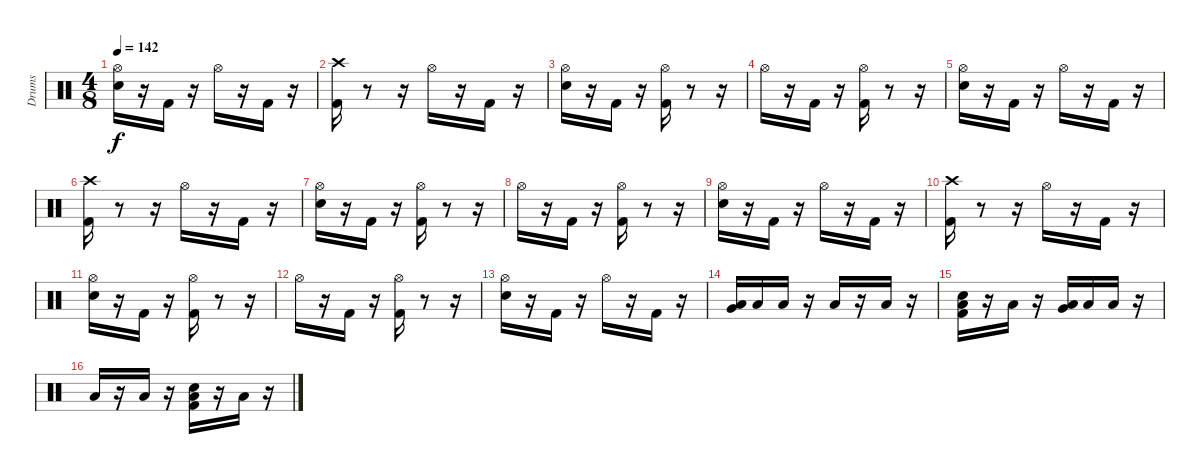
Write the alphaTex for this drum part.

\track ("Drums" "Drums") {instrument percussion}
\staff {score}
\articulation defaults
\ts (4 8)
\tempo 142
\clef neutral
\ks c
("Hi-Hat (open)" "Electric Snare (hit)").16{dy f} r.16 "Kick (hit) 2".16 r.16 "Hi-Hat (open)".16 r.16 "Kick (hit) 2".16 r.16 |
("Crash high (hit)" "Kick (hit) 2").16 r.8 r.16 "Hi-Hat (open)".16 r.16 "Kick (hit) 2".16 r.16 |
("Electric Snare (hit)" "Hi-Hat (open)").16 r.16 "Kick (hit) 2".16 r.16 ("Hi-Hat (open)" "Kick (hit) 2").16 r.8 r.16 |
"Hi-Hat (open)".16 r.16 "Kick (hit) 2".16 r.16 ("Hi-Hat (open)" "Kick (hit) 2").16 r.8 r.16 |
("Hi-Hat (open)" "Electric Snare (hit)").16 r.16 "Kick (hit) 2".16 r.16 "Hi-Hat (open)".16 r.16 "Kick (hit) 2".16 r.16 |
("Crash high (hit)" "Kick (hit) 2").16 r.8 r.16 "Hi-Hat (open)".16 r.16 "Kick (hit) 2".16 r.16 |
("Electric Snare (hit)" "Hi-Hat (open)").16 r.16 "Kick (hit) 2".16 r.16 ("Hi-Hat (open)" "Kick (hit) 2").16 r.8 r.16 |
"Hi-Hat (open)".16 r.16 "Kick (hit) 2".16 r.16 ("Hi-Hat (open)" "Kick (hit) 2").16 r.8 r.16 |
("Hi-Hat (open)" "Electric Snare (hit)").16 r.16 "Kick (hit) 2".16 r.16 "Hi-Hat (open)".16 r.16 "Kick (hit) 2".16 r.16 |
("Crash high (hit)" "Kick (hit) 2").16 r.8 r.16 "Hi-Hat (open)".16 r.16 "Kick (hit) 2".16 r.16 |
("Electric Snare (hit)" "Hi-Hat (open)").16 r.16 "Kick (hit) 2".16 r.16 ("Hi-Hat (open)" "Kick (hit) 2").16 r.8 r.16 |
"Hi-Hat (open)".16 r.16 "Kick (hit) 2".16 r.16 ("Hi-Hat (open)" "Kick (hit) 2").16 r.8 r.16 |
("Hi-Hat (open)" "Electric Snare (hit)").16 r.16 "Kick (hit) 2".16 r.16 "Hi-Hat (open)".16 r.16 "Kick (hit) 2".16 r.16 |
("Very Low Tom (hit)" "Low Floor Tom (hit)").16 "Low Tom (hit)".16 "Low Floor Tom (hit)".16 r.16 "Low Floor Tom (hit)".16 r.16 "Low Floor Tom (hit)".16 r.16 |
("Electric Snare (hit)" "Kick (hit) 2" "Low Floor Tom (hit)").16 r.16 "Low Floor Tom (hit)".16 r.16 ("Very Low Tom (hit)" "Low Floor Tom (hit)").16 "Low Tom (hit)".16 "Low Floor Tom (hit)".16 r.16 |
"Low Floor Tom (hit)".16 r.16 "Low Floor Tom (hit)".16 r.16 ("Electric Snare (hit)" "Kick (hit) 2" "Low Floor Tom (hit)").16 r.16 "Low Floor Tom (hit)".16 r.16
